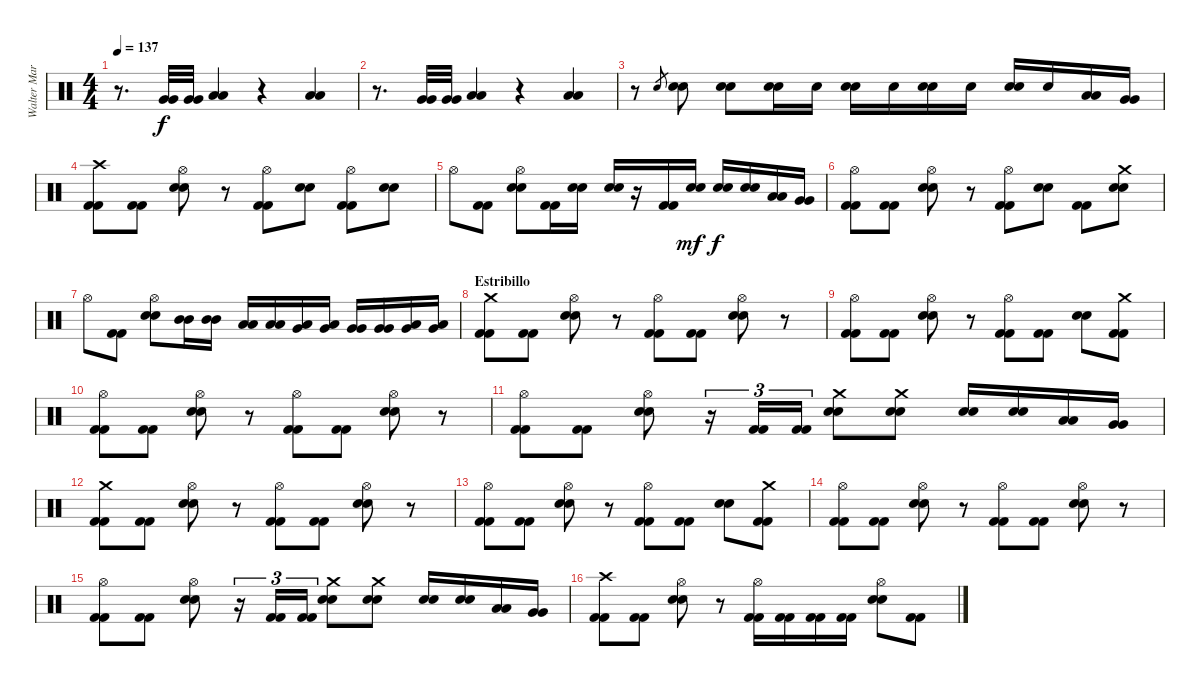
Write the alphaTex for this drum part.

\track ("Walter Martinez (bateria)" "Walter Mar") {instrument percussion}
\staff {score}
\articulation defaults
\ts (4 4)
\tempo 137
\clef neutral
\ks c
r.8{d dy f} ("Very Low Tom (hit)" "Very Low Tom (hit)").32 ("Very Low Tom (hit)" "Very Low Tom (hit)").32 ("Low Floor Tom (hit)" "Low Floor Tom (hit)").4 r.4 ("Low Tom (hit)" "Low Tom (hit)").4 |
r.8{d} ("Very Low Tom (hit)" "Very Low Tom (hit)").32 ("Very Low Tom (hit)" "Very Low Tom (hit)").32 ("Low Floor Tom (hit)" "Low Floor Tom (hit)").4 r.4 ("Low Tom (hit)" "Low Tom (hit)").4 |
r.8 "Snare (hit) 2".8{gr} ("Snare (hit) 2" "Snare (hit) 2").8 ("Snare (hit) 2" "Snare (hit) 2").8 ("Snare (hit) 2" "Snare (hit) 2").16 "Snare (hit) 2".16 ("Snare (hit) 2" "Snare (hit) 2").16 "Snare (hit) 2".16 ("Snare (hit) 2" "Snare (hit) 2").16 "Snare (hit) 2".16 ("Snare (hit) 2" "Snare (hit) 2").16 "Snare (hit) 2".16 ("Low Tom (hit)" "Low Tom (hit)").16 ("Very Low Tom (hit)" "Very Low Tom (hit)").16 |
("Crash high (hit)" "Kick (hit) 2" "Kick (hit) 2").8 ("Kick (hit) 2" "Kick (hit) 2").8 ("Hi-Hat (open)" "Snare (hit) 2" "Snare (hit) 2").8 r.8 ("Hi-Hat (open)" "Kick (hit) 2" "Kick (hit) 2").8 ("Snare (hit) 2" "Snare (hit) 2").8 ("Hi-Hat (open)" "Kick (hit) 2" "Kick (hit) 2").8 ("Snare (hit) 2" "Snare (hit) 2").8 |
"Hi-Hat (open)".8 ("Kick (hit) 2" "Kick (hit) 2").8 ("Hi-Hat (open)" "Snare (hit) 2" "Snare (hit) 2").8 ("Kick (hit) 2" "Kick (hit) 2").16 ("Snare (hit) 2" "Snare (hit) 2").16 ("Snare (hit) 2" "Snare (hit) 2").16 r.16 ("Kick (hit) 2" "Kick (hit) 2").16 ("Snare (hit) 2" "Snare (hit) 2").16{dy mf} ("Snare (hit) 2" "Snare (hit) 2").16{dy f} ("Snare (hit) 2" "Snare (hit) 2").16 ("Low Tom (hit)" "Low Tom (hit)").16 ("Very Low Tom (hit)" "Very Low Tom (hit)").16 |
("Hi-Hat (open)" "Kick (hit) 2" "Kick (hit) 2").8 ("Kick (hit) 2" "Kick (hit) 2").8 ("Hi-Hat (open)" "Snare (hit) 2" "Snare (hit) 2").8 r.8 ("Hi-Hat (open)" "Kick (hit) 2" "Kick (hit) 2").8 ("Snare (hit) 2" "Snare (hit) 2").8 ("Kick (hit) 2" "Kick (hit) 2").8 ("Crash medium (hit)" "Snare (hit) 2" "Snare (hit) 2").8 |
"Hi-Hat (open)".8 ("Kick (hit) 2" "Kick (hit) 2").8 ("Hi-Hat (open)" "Snare (hit) 2" "Snare (hit) 2").8 ("Mid Tom (hit)" "Mid Tom (hit)").16 ("Mid Tom (hit)" "Mid Tom (hit)").16 ("Low Tom (hit)" "Low Tom (hit)").16 ("Low Tom (hit)" "Low Tom (hit)").16 ("Low Tom (hit)" "Very Low Tom (hit)").16 ("Low Tom (hit)" "Very Low Tom (hit)").16 ("Very Low Tom (hit)" "Very Low Tom (hit)").16 ("Very Low Tom (hit)" "Very Low Tom (hit)").16 ("Low Floor Tom (hit)" "Very Low Tom (hit)").16 ("Low Floor Tom (hit)" "Very Low Tom (hit)").16 |
\section ("" "Estribillo")
("Crash medium (hit)" "Kick (hit) 2" "Kick (hit) 2").8 ("Kick (hit) 2" "Kick (hit) 2").8 ("Hi-Hat (open)" "Snare (hit) 2" "Snare (hit) 2").8 r.8 ("Hi-Hat (open)" "Kick (hit) 2" "Kick (hit) 2").8 ("Kick (hit) 2" "Kick (hit) 2").8 ("Hi-Hat (open)" "Snare (hit) 2" "Snare (hit) 2").8 r.8 |
("Hi-Hat (open)" "Kick (hit) 2" "Kick (hit) 2").8 ("Kick (hit) 2" "Kick (hit) 2").8 ("Hi-Hat (open)" "Snare (hit) 2" "Snare (hit) 2").8 r.8 ("Hi-Hat (open)" "Kick (hit) 2" "Kick (hit) 2").8 ("Kick (hit) 2" "Kick (hit) 2").8 ("Snare (hit) 2" "Snare (hit) 2").8 ("Crash medium (hit)" "Kick (hit) 2" "Kick (hit) 2").8 |
("Hi-Hat (open)" "Kick (hit) 2" "Kick (hit) 2").8 ("Kick (hit) 2" "Kick (hit) 2").8 ("Hi-Hat (open)" "Snare (hit) 2" "Snare (hit) 2").8 r.8 ("Hi-Hat (open)" "Kick (hit) 2" "Kick (hit) 2").8 ("Kick (hit) 2" "Kick (hit) 2").8 ("Hi-Hat (open)" "Snare (hit) 2" "Snare (hit) 2").8 r.8 |
("Hi-Hat (open)" "Kick (hit) 2" "Kick (hit) 2").8 ("Kick (hit) 2" "Kick (hit) 2").8 ("Hi-Hat (open)" "Snare (hit) 2" "Snare (hit) 2").8 r.16{tu (3 2)} ("Kick (hit) 2" "Kick (hit) 2").16{tu (3 2)} ("Kick (hit) 2" "Kick (hit) 2").16{tu (3 2)} ("Crash medium (hit)" "Snare (hit) 2" "Snare (hit) 2").8 ("Crash medium (hit)" "Snare (hit) 2" "Snare (hit) 2").8 ("Snare (hit) 2" "Snare (hit) 2").16 ("Snare (hit) 2" "Snare (hit) 2").16 ("Low Tom (hit)" "Low Tom (hit)").16 ("Very Low Tom (hit)" "Very Low Tom (hit)").16 |
("Crash medium (hit)" "Kick (hit) 2" "Kick (hit) 2").8 ("Kick (hit) 2" "Kick (hit) 2").8 ("Hi-Hat (open)" "Snare (hit) 2" "Snare (hit) 2").8 r.8 ("Hi-Hat (open)" "Kick (hit) 2" "Kick (hit) 2").8 ("Kick (hit) 2" "Kick (hit) 2").8 ("Hi-Hat (open)" "Snare (hit) 2" "Snare (hit) 2").8 r.8 |
("Hi-Hat (open)" "Kick (hit) 2" "Kick (hit) 2").8 ("Kick (hit) 2" "Kick (hit) 2").8 ("Hi-Hat (open)" "Snare (hit) 2" "Snare (hit) 2").8 r.8 ("Hi-Hat (open)" "Kick (hit) 2" "Kick (hit) 2").8 ("Kick (hit) 2" "Kick (hit) 2").8 ("Snare (hit) 2" "Snare (hit) 2").8 ("Crash medium (hit)" "Kick (hit) 2" "Kick (hit) 2").8 |
("Hi-Hat (open)" "Kick (hit) 2" "Kick (hit) 2").8 ("Kick (hit) 2" "Kick (hit) 2").8 ("Hi-Hat (open)" "Snare (hit) 2" "Snare (hit) 2").8 r.8 ("Hi-Hat (open)" "Kick (hit) 2" "Kick (hit) 2").8 ("Kick (hit) 2" "Kick (hit) 2").8 ("Hi-Hat (open)" "Snare (hit) 2" "Snare (hit) 2").8 r.8 |
("Hi-Hat (open)" "Kick (hit) 2" "Kick (hit) 2").8 ("Kick (hit) 2" "Kick (hit) 2").8 ("Hi-Hat (open)" "Snare (hit) 2" "Snare (hit) 2").8 r.16{tu (3 2)} ("Kick (hit) 2" "Kick (hit) 2").16{tu (3 2)} ("Kick (hit) 2" "Kick (hit) 2").16{tu (3 2)} ("Crash medium (hit)" "Snare (hit) 2" "Snare (hit) 2").8 ("Crash medium (hit)" "Snare (hit) 2" "Snare (hit) 2").8 ("Snare (hit) 2" "Snare (hit) 2").16 ("Snare (hit) 2" "Snare (hit) 2").16 ("Low Tom (hit)" "Low Tom (hit)").16 ("Very Low Tom (hit)" "Very Low Tom (hit)").16 |
("Crash high (hit)" "Kick (hit) 2" "Kick (hit) 2").8 ("Kick (hit) 2" "Kick (hit) 2").8 ("Hi-Hat (open)" "Snare (hit) 2" "Snare (hit) 2").8 r.8 ("Hi-Hat (open)" "Kick (hit) 2" "Kick (hit) 2").16 ("Kick (hit) 2" "Kick (hit) 2").16 ("Kick (hit) 2" "Kick (hit) 2").16 ("Kick (hit) 2" "Kick (hit) 2").16 ("Hi-Hat (open)" "Snare (hit) 2" "Snare (hit) 2").8 ("Kick (hit) 2" "Kick (hit) 2").8
